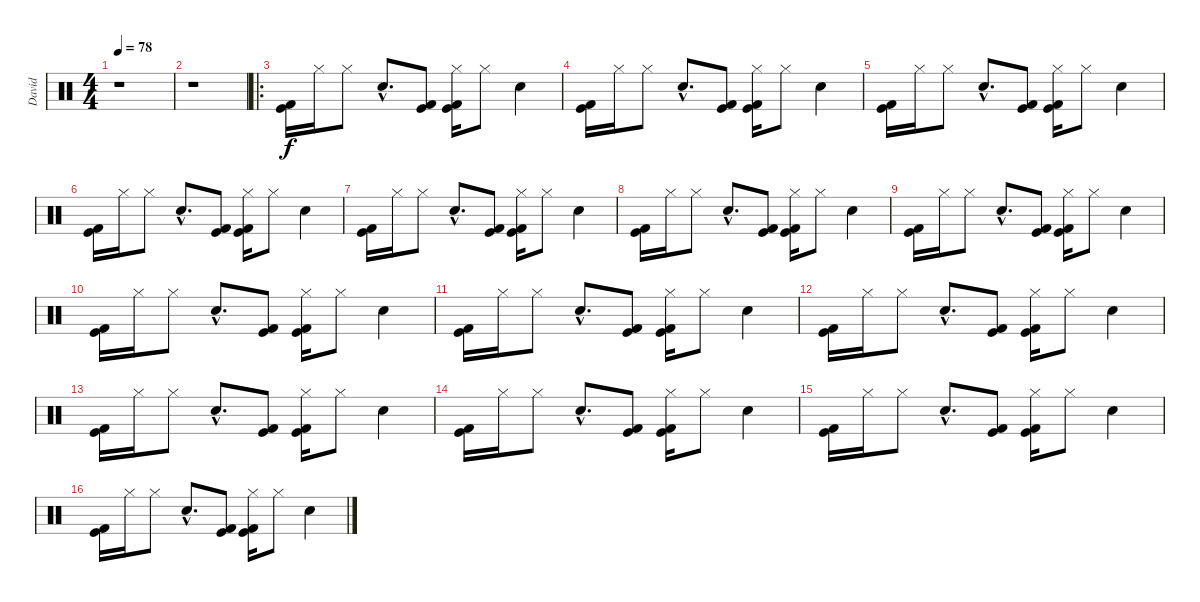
\track ("David" "David") {instrument percussion}
\staff {score}
\articulation defaults
\ts (4 4)
\tempo 78
\clef neutral
\ks c
r.1{dy f} |
r.1 |
\ro
("Kick (hit) 2" "Kick (hit)").16 "Hi-Hat (closed)".16 "Hi-Hat (closed)".8 "Electric Snare (hit)"{hac}.8{d} ("Kick (hit) 2" "Kick (hit)").8 ("Hi-Hat (closed)" "Kick (hit) 2" "Kick (hit)").16 "Hi-Hat (closed)".8 "Electric Snare (hit)".4 |
("Kick (hit) 2" "Kick (hit)").16 "Hi-Hat (closed)".16 "Hi-Hat (closed)".8 "Electric Snare (hit)"{hac}.8{d} ("Kick (hit) 2" "Kick (hit)").8 ("Hi-Hat (closed)" "Kick (hit) 2" "Kick (hit)").16 "Hi-Hat (closed)".8 "Electric Snare (hit)".4 |
("Kick (hit) 2" "Kick (hit)").16 "Hi-Hat (closed)".16 "Hi-Hat (closed)".8 "Electric Snare (hit)"{hac}.8{d} ("Kick (hit) 2" "Kick (hit)").8 ("Hi-Hat (closed)" "Kick (hit) 2" "Kick (hit)").16 "Hi-Hat (closed)".8 "Electric Snare (hit)".4 |
("Kick (hit) 2" "Kick (hit)").16 "Hi-Hat (closed)".16 "Hi-Hat (closed)".8 "Electric Snare (hit)"{hac}.8{d} ("Kick (hit) 2" "Kick (hit)").8 ("Hi-Hat (closed)" "Kick (hit) 2" "Kick (hit)").16 "Hi-Hat (closed)".8 "Electric Snare (hit)".4 |
("Kick (hit) 2" "Kick (hit)").16 "Hi-Hat (closed)".16 "Hi-Hat (closed)".8 "Electric Snare (hit)"{hac}.8{d} ("Kick (hit) 2" "Kick (hit)").8 ("Hi-Hat (closed)" "Kick (hit) 2" "Kick (hit)").16 "Hi-Hat (closed)".8 "Electric Snare (hit)".4 |
("Kick (hit) 2" "Kick (hit)").16 "Hi-Hat (closed)".16 "Hi-Hat (closed)".8 "Electric Snare (hit)"{hac}.8{d} ("Kick (hit) 2" "Kick (hit)").8 ("Hi-Hat (closed)" "Kick (hit) 2" "Kick (hit)").16 "Hi-Hat (closed)".8 "Electric Snare (hit)".4 |
("Kick (hit) 2" "Kick (hit)").16 "Hi-Hat (closed)".16 "Hi-Hat (closed)".8 "Electric Snare (hit)"{hac}.8{d} ("Kick (hit) 2" "Kick (hit)").8 ("Hi-Hat (closed)" "Kick (hit) 2" "Kick (hit)").16 "Hi-Hat (closed)".8 "Electric Snare (hit)".4 |
("Kick (hit) 2" "Kick (hit)").16 "Hi-Hat (closed)".16 "Hi-Hat (closed)".8 "Electric Snare (hit)"{hac}.8{d} ("Kick (hit) 2" "Kick (hit)").8 ("Hi-Hat (closed)" "Kick (hit) 2" "Kick (hit)").16 "Hi-Hat (closed)".8 "Electric Snare (hit)".4 |
("Kick (hit) 2" "Kick (hit)").16 "Hi-Hat (closed)".16 "Hi-Hat (closed)".8 "Electric Snare (hit)"{hac}.8{d} ("Kick (hit) 2" "Kick (hit)").8 ("Hi-Hat (closed)" "Kick (hit) 2" "Kick (hit)").16 "Hi-Hat (closed)".8 "Electric Snare (hit)".4 |
("Kick (hit) 2" "Kick (hit)").16 "Hi-Hat (closed)".16 "Hi-Hat (closed)".8 "Electric Snare (hit)"{hac}.8{d} ("Kick (hit) 2" "Kick (hit)").8 ("Hi-Hat (closed)" "Kick (hit) 2" "Kick (hit)").16 "Hi-Hat (closed)".8 "Electric Snare (hit)".4 |
("Kick (hit) 2" "Kick (hit)").16 "Hi-Hat (closed)".16 "Hi-Hat (closed)".8 "Electric Snare (hit)"{hac}.8{d} ("Kick (hit) 2" "Kick (hit)").8 ("Hi-Hat (closed)" "Kick (hit) 2" "Kick (hit)").16 "Hi-Hat (closed)".8 "Electric Snare (hit)".4 |
("Kick (hit) 2" "Kick (hit)").16 "Hi-Hat (closed)".16 "Hi-Hat (closed)".8 "Electric Snare (hit)"{hac}.8{d} ("Kick (hit) 2" "Kick (hit)").8 ("Hi-Hat (closed)" "Kick (hit) 2" "Kick (hit)").16 "Hi-Hat (closed)".8 "Electric Snare (hit)".4 |
("Kick (hit) 2" "Kick (hit)").16 "Hi-Hat (closed)".16 "Hi-Hat (closed)".8 "Electric Snare (hit)"{hac}.8{d} ("Kick (hit) 2" "Kick (hit)").8 ("Hi-Hat (closed)" "Kick (hit) 2" "Kick (hit)").16 "Hi-Hat (closed)".8 "Electric Snare (hit)".4 |
("Kick (hit) 2" "Kick (hit)").16 "Hi-Hat (closed)".16 "Hi-Hat (closed)".8 "Electric Snare (hit)"{hac}.8{d} ("Kick (hit) 2" "Kick (hit)").8 ("Hi-Hat (closed)" "Kick (hit) 2" "Kick (hit)").16 "Hi-Hat (closed)".8 "Electric Snare (hit)".4
